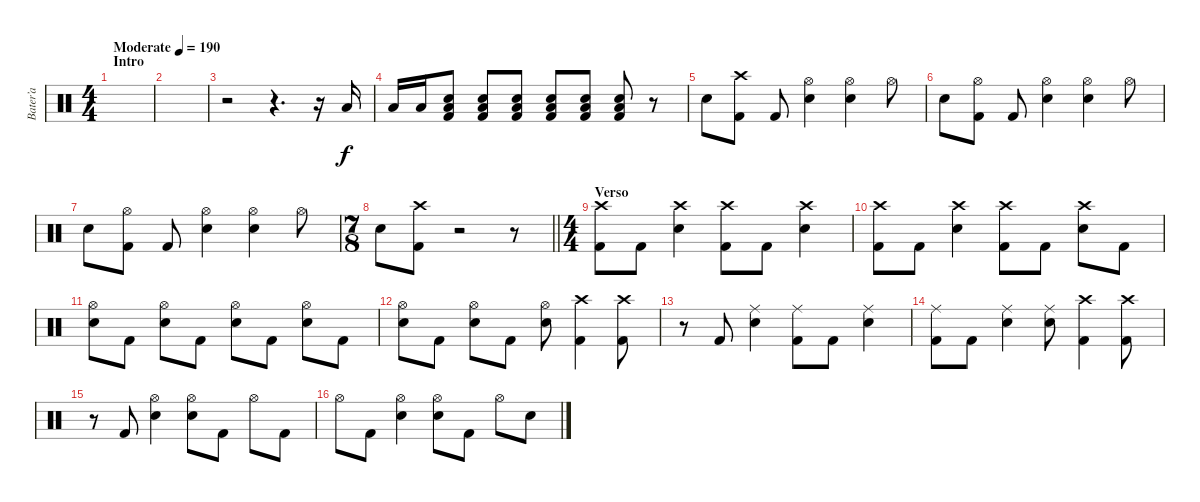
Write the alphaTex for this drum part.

\track ("Bater’a" "Bater’a") {instrument percussion}
\staff {score}
\articulation defaults
\ts (4 4)
\section ("" "Intro")
\tempo (190 "Moderate")
\clef neutral
\ks c
|
|
r.2 r.4{d} r.16 "Low Tom (hit)".16 |
"Low Tom (hit)".16 "Low Tom (hit)".16 ("Low Floor Tom (hit)" "Electric Snare (hit)" "Kick (hit) 2").8 ("Low Floor Tom (hit)" "Electric Snare (hit)" "Kick (hit) 2").8 ("Low Floor Tom (hit)" "Electric Snare (hit)" "Kick (hit) 2").8 ("Low Floor Tom (hit)" "Electric Snare (hit)" "Kick (hit) 2").8 ("Low Floor Tom (hit)" "Electric Snare (hit)" "Kick (hit) 2").8 ("Low Floor Tom (hit)" "Electric Snare (hit)" "Kick (hit) 2").8 r.8 |
"Electric Snare (hit)".8 ("Crash high (hit)" "Kick (hit) 2").8 "Kick (hit) 2".8 ("Hi-Hat (open)" "Electric Snare (hit)").4 ("Hi-Hat (open)" "Electric Snare (hit)").4 "Hi-Hat (open)".8 |
"Electric Snare (hit)".8 ("Hi-Hat (open)" "Kick (hit) 2").8 "Kick (hit) 2".8 ("Hi-Hat (open)" "Electric Snare (hit)").4 ("Hi-Hat (open)" "Electric Snare (hit)").4 "Hi-Hat (open)".8 |
"Electric Snare (hit)".8 ("Hi-Hat (open)" "Kick (hit) 2").8 "Kick (hit) 2".8 ("Hi-Hat (open)" "Electric Snare (hit)").4 ("Hi-Hat (open)" "Electric Snare (hit)").4 "Hi-Hat (open)".8 |
\ts (7 8)
\barLineRight lightlight "Electric Snare (hit)".8
("Crash high (hit)" "Kick (hit) 2").8 r.2 r.8 |
\ts (4 4)
\section ("" "Verso")
("Crash high (hit)" "Kick (hit) 2").8 "Kick (hit) 2".8 ("Crash high (hit)" "Electric Snare (hit)").4 ("Crash high (hit)" "Kick (hit) 2").8 "Kick (hit) 2".8 ("Crash high (hit)" "Electric Snare (hit)").4 |
("Crash high (hit)" "Kick (hit) 2").8 "Kick (hit) 2".8 ("Crash high (hit)" "Electric Snare (hit)").4 ("Crash high (hit)" "Kick (hit) 2").8 "Kick (hit) 2".8 ("Crash high (hit)" "Electric Snare (hit)").8 "Kick (hit) 2".8 |
("Hi-Hat (open)" "Electric Snare (hit)").8 "Kick (hit) 2".8 ("Hi-Hat (open)" "Electric Snare (hit)").8 "Kick (hit) 2".8 ("Hi-Hat (open)" "Electric Snare (hit)").8 "Kick (hit) 2".8 ("Hi-Hat (open)" "Electric Snare (hit)").8 "Kick (hit) 2".8 |
("Hi-Hat (open)" "Electric Snare (hit)").8 "Kick (hit) 2".8 ("Hi-Hat (open)" "Electric Snare (hit)").8 "Kick (hit) 2".8 ("Hi-Hat (open)" "Electric Snare (hit)").8 ("Crash high (hit)" "Kick (hit) 2").4 ("Crash high (hit)" "Kick (hit) 2").8 |
r.8 "Kick (hit) 2".8 ("Ride (middle)" "Electric Snare (hit)").4 ("Ride (middle)" "Kick (hit) 2").8 "Kick (hit) 2".8 ("Ride (middle)" "Electric Snare (hit)").4 |
("Ride (middle)" "Kick (hit) 2").8 "Kick (hit) 2".8 ("Ride (middle)" "Electric Snare (hit)").4 ("Ride (middle)" "Electric Snare (hit)").8 ("Crash high (hit)" "Kick (hit) 2").4 ("Crash high (hit)" "Kick (hit) 2").8 |
r.8 "Kick (hit) 2".8 ("Hi-Hat (open)" "Electric Snare (hit)").4 ("Hi-Hat (open)" "Electric Snare (hit)").8 "Kick (hit) 2".8 "Hi-Hat (open)".8 "Kick (hit) 2".8 |
"Hi-Hat (open)".8 "Kick (hit) 2".8 ("Hi-Hat (open)" "Electric Snare (hit)").4 ("Hi-Hat (open)" "Electric Snare (hit)").8 "Kick (hit) 2".8 "Hi-Hat (open)".8 "Electric Snare (hit)".8
